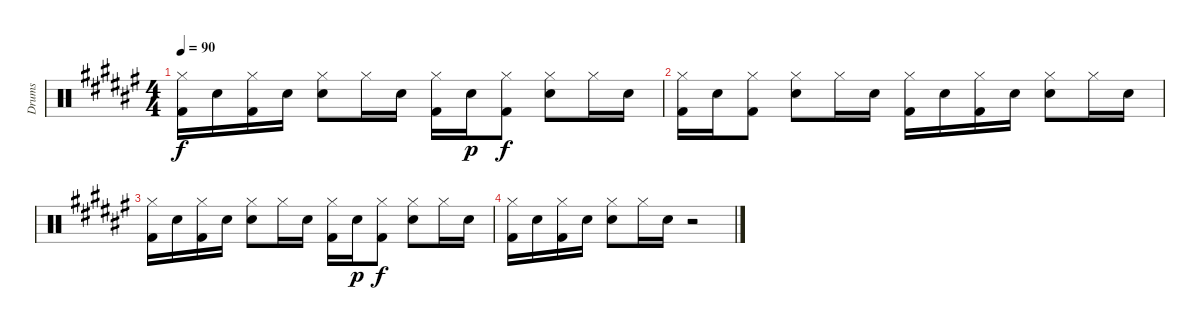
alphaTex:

\track ("Drums" "Drums") {instrument percussion}
\staff {score}
\articulation defaults
\ts (4 4)
\tempo 90
\clef neutral
\ks f#
("Hi-Hat (closed)" "Kick (hit) 2").16{dy f} "Snare (hit) 2".16 ("Hi-Hat (closed)" "Kick (hit) 2").16 "Snare (hit) 2".16 ("Hi-Hat (closed)" "Snare (hit) 2").8 "Hi-Hat (closed)".16 "Snare (hit) 2".16 ("Hi-Hat (closed)" "Kick (hit) 2").16 "Snare (hit) 2".16{dy p} ("Hi-Hat (closed)" "Kick (hit) 2").8{dy f} ("Hi-Hat (closed)" "Snare (hit) 2").8 "Hi-Hat (closed)".16 "Snare (hit) 2".16 |
("Hi-Hat (closed)" "Kick (hit) 2").16 "Snare (hit) 2".16 ("Hi-Hat (closed)" "Kick (hit) 2").8 ("Hi-Hat (closed)" "Snare (hit) 2").8 "Hi-Hat (closed)".16 "Snare (hit) 2".16 ("Hi-Hat (closed)" "Kick (hit) 2").16 "Snare (hit) 2".16 ("Hi-Hat (closed)" "Kick (hit) 2").16 "Snare (hit) 2".16 ("Hi-Hat (closed)" "Snare (hit) 2").8 "Hi-Hat (closed)".16 "Snare (hit) 2".16 |
("Hi-Hat (closed)" "Kick (hit) 2").16 "Snare (hit) 2".16 ("Hi-Hat (closed)" "Kick (hit) 2").16 "Snare (hit) 2".16 ("Hi-Hat (closed)" "Snare (hit) 2").8 "Hi-Hat (closed)".16 "Snare (hit) 2".16 ("Hi-Hat (closed)" "Kick (hit) 2").16 "Snare (hit) 2".16{dy p} ("Hi-Hat (closed)" "Kick (hit) 2").8{dy f} ("Hi-Hat (closed)" "Snare (hit) 2").8 "Hi-Hat (closed)".16 "Snare (hit) 2".16 |
("Hi-Hat (closed)" "Kick (hit) 2").16 "Snare (hit) 2".16 ("Hi-Hat (closed)" "Kick (hit) 2").16 "Snare (hit) 2".16 ("Hi-Hat (closed)" "Snare (hit) 2").8 "Hi-Hat (closed)".16 "Snare (hit) 2".16 r.2
